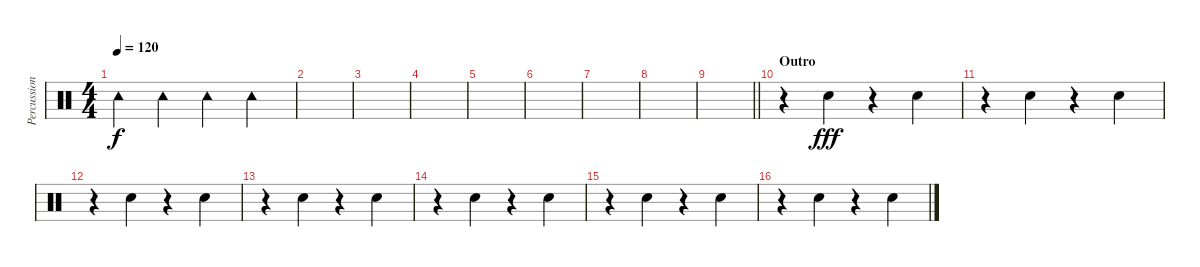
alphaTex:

\track ("Percussions" "Percussion") {instrument percussion}
\staff {score}
\articulation defaults
\ts (4 4)
\tempo 120
\clef neutral
\ks c "Tambourine (hit)".4{dy f} "Tambourine (hit)".4 "Tambourine (hit)".4 "Tambourine (hit)".4
|
|
|
|
|
|
|
|
\barLineRight lightlight
|
\section ("" "Outro")
r.4 "Electric Snare (hit)".4{dy fff} r.4 "Electric Snare (hit)".4 |
r.4 "Electric Snare (hit)".4 r.4 "Electric Snare (hit)".4 |
r.4 "Electric Snare (hit)".4 r.4 "Electric Snare (hit)".4 |
r.4 "Electric Snare (hit)".4 r.4 "Electric Snare (hit)".4 |
r.4 "Electric Snare (hit)".4 r.4 "Electric Snare (hit)".4 |
r.4 "Electric Snare (hit)".4 r.4 "Electric Snare (hit)".4 |
r.4 "Electric Snare (hit)".4 r.4 "Electric Snare (hit)".4
